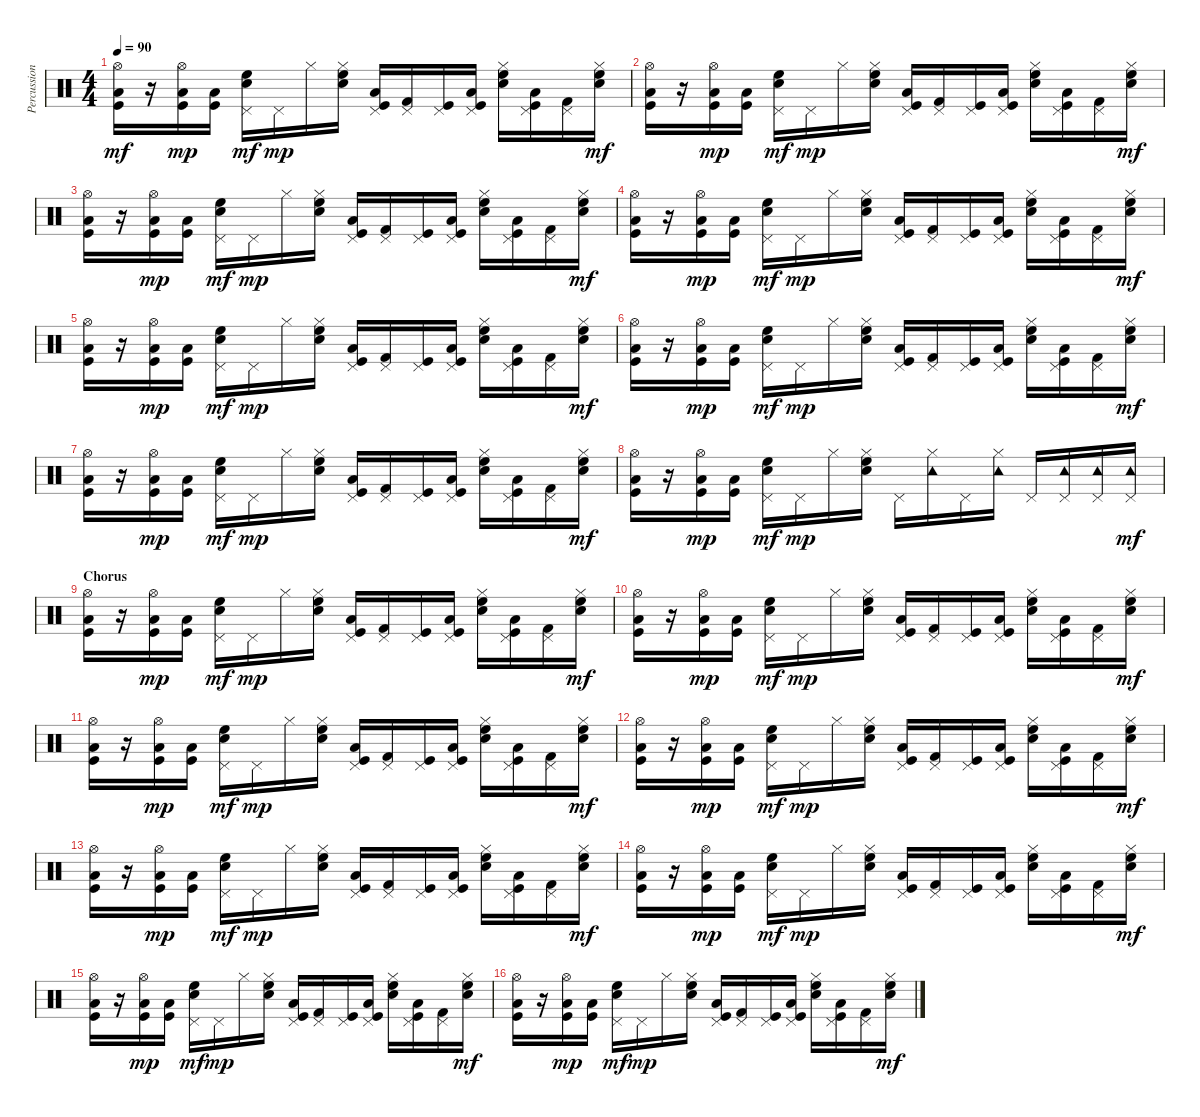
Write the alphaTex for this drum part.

\track ("Percussion" "Percussion") {instrument percussion}
\staff {score}
\articulation defaults
\ts (4 4)
\tempo 90
\clef neutral
\ks c
("Kick (hit)" "Low Tom (hit)" "Hi-Hat (open)").16{dy mf} r.16 ("Kick (hit)" "Low Tom (hit)" "Hi-Hat (open)").16{dy mp} ("Kick (hit)" "Low Tom (hit)").16 ("Snare (hit) 2" "High Floor Tom (hit)" "Pedal Hi-Hat (hit)").16{dy mf} "Pedal Hi-Hat (hit)".16{dy mp} "Hi-Hat (closed)".16 ("Snare (hit) 2" "High Floor Tom (hit)" "Hi-Hat (closed)").16 ("Kick (hit)" "Low Tom (hit)" "Pedal Hi-Hat (hit)").16 ("Kick (hit) 2" "Pedal Hi-Hat (hit)").16 ("Kick (hit)" "Pedal Hi-Hat (hit)").16 ("Kick (hit)" "Low Tom (hit)" "Pedal Hi-Hat (hit)").16 ("Snare (hit) 2" "High Floor Tom (hit)" "Hi-Hat (closed)").16 ("Kick (hit)" "Low Tom (hit)" "Pedal Hi-Hat (hit)").16 ("Kick (hit) 2" "Pedal Hi-Hat (hit)").16 ("Snare (hit) 2" "High Floor Tom (hit)" "Hi-Hat (closed)").16{dy mf} |
("Kick (hit)" "Low Tom (hit)" "Hi-Hat (open)").16 r.16 ("Kick (hit)" "Low Tom (hit)" "Hi-Hat (open)").16{dy mp} ("Kick (hit)" "Low Tom (hit)").16 ("Snare (hit) 2" "High Floor Tom (hit)" "Pedal Hi-Hat (hit)").16{dy mf} "Pedal Hi-Hat (hit)".16{dy mp} "Hi-Hat (closed)".16 ("Snare (hit) 2" "High Floor Tom (hit)" "Hi-Hat (closed)").16 ("Kick (hit)" "Low Tom (hit)" "Pedal Hi-Hat (hit)").16 ("Kick (hit) 2" "Pedal Hi-Hat (hit)").16 ("Kick (hit)" "Pedal Hi-Hat (hit)").16 ("Kick (hit)" "Low Tom (hit)" "Pedal Hi-Hat (hit)").16 ("Snare (hit) 2" "High Floor Tom (hit)" "Hi-Hat (closed)").16 ("Kick (hit)" "Low Tom (hit)" "Pedal Hi-Hat (hit)").16 ("Kick (hit) 2" "Pedal Hi-Hat (hit)").16 ("Snare (hit) 2" "High Floor Tom (hit)" "Hi-Hat (closed)").16{dy mf} |
("Kick (hit)" "Low Tom (hit)" "Hi-Hat (open)").16 r.16 ("Kick (hit)" "Low Tom (hit)" "Hi-Hat (open)").16{dy mp} ("Kick (hit)" "Low Tom (hit)").16 ("Snare (hit) 2" "High Floor Tom (hit)" "Pedal Hi-Hat (hit)").16{dy mf} "Pedal Hi-Hat (hit)".16{dy mp} "Hi-Hat (closed)".16 ("Snare (hit) 2" "High Floor Tom (hit)" "Hi-Hat (closed)").16 ("Kick (hit)" "Low Tom (hit)" "Pedal Hi-Hat (hit)").16 ("Kick (hit) 2" "Pedal Hi-Hat (hit)").16 ("Kick (hit)" "Pedal Hi-Hat (hit)").16 ("Kick (hit)" "Low Tom (hit)" "Pedal Hi-Hat (hit)").16 ("Snare (hit) 2" "High Floor Tom (hit)" "Hi-Hat (closed)").16 ("Kick (hit)" "Low Tom (hit)" "Pedal Hi-Hat (hit)").16 ("Kick (hit) 2" "Pedal Hi-Hat (hit)").16 ("Snare (hit) 2" "High Floor Tom (hit)" "Hi-Hat (closed)").16{dy mf} |
("Kick (hit)" "Low Tom (hit)" "Hi-Hat (open)").16 r.16 ("Kick (hit)" "Low Tom (hit)" "Hi-Hat (open)").16{dy mp} ("Kick (hit)" "Low Tom (hit)").16 ("Snare (hit) 2" "High Floor Tom (hit)" "Pedal Hi-Hat (hit)").16{dy mf} "Pedal Hi-Hat (hit)".16{dy mp} "Hi-Hat (closed)".16 ("Snare (hit) 2" "High Floor Tom (hit)" "Hi-Hat (closed)").16 ("Kick (hit)" "Low Tom (hit)" "Pedal Hi-Hat (hit)").16 ("Kick (hit) 2" "Pedal Hi-Hat (hit)").16 ("Kick (hit)" "Pedal Hi-Hat (hit)").16 ("Kick (hit)" "Low Tom (hit)" "Pedal Hi-Hat (hit)").16 ("Snare (hit) 2" "High Floor Tom (hit)" "Hi-Hat (closed)").16 ("Kick (hit)" "Low Tom (hit)" "Pedal Hi-Hat (hit)").16 ("Kick (hit) 2" "Pedal Hi-Hat (hit)").16 ("Snare (hit) 2" "High Floor Tom (hit)" "Hi-Hat (closed)").16{dy mf} |
("Kick (hit)" "Low Tom (hit)" "Hi-Hat (open)").16 r.16 ("Kick (hit)" "Low Tom (hit)" "Hi-Hat (open)").16{dy mp} ("Kick (hit)" "Low Tom (hit)").16 ("Snare (hit) 2" "High Floor Tom (hit)" "Pedal Hi-Hat (hit)").16{dy mf} "Pedal Hi-Hat (hit)".16{dy mp} "Hi-Hat (closed)".16 ("Snare (hit) 2" "High Floor Tom (hit)" "Hi-Hat (closed)").16 ("Kick (hit)" "Low Tom (hit)" "Pedal Hi-Hat (hit)").16 ("Kick (hit) 2" "Pedal Hi-Hat (hit)").16 ("Kick (hit)" "Pedal Hi-Hat (hit)").16 ("Kick (hit)" "Low Tom (hit)" "Pedal Hi-Hat (hit)").16 ("Snare (hit) 2" "High Floor Tom (hit)" "Hi-Hat (closed)").16 ("Kick (hit)" "Low Tom (hit)" "Pedal Hi-Hat (hit)").16 ("Kick (hit) 2" "Pedal Hi-Hat (hit)").16 ("Snare (hit) 2" "High Floor Tom (hit)" "Hi-Hat (closed)").16{dy mf} |
("Kick (hit)" "Low Tom (hit)" "Hi-Hat (open)").16 r.16 ("Kick (hit)" "Low Tom (hit)" "Hi-Hat (open)").16{dy mp} ("Kick (hit)" "Low Tom (hit)").16 ("Snare (hit) 2" "High Floor Tom (hit)" "Pedal Hi-Hat (hit)").16{dy mf} "Pedal Hi-Hat (hit)".16{dy mp} "Hi-Hat (closed)".16 ("Snare (hit) 2" "High Floor Tom (hit)" "Hi-Hat (closed)").16 ("Kick (hit)" "Low Tom (hit)" "Pedal Hi-Hat (hit)").16 ("Kick (hit) 2" "Pedal Hi-Hat (hit)").16 ("Kick (hit)" "Pedal Hi-Hat (hit)").16 ("Kick (hit)" "Low Tom (hit)" "Pedal Hi-Hat (hit)").16 ("Snare (hit) 2" "High Floor Tom (hit)" "Hi-Hat (closed)").16 ("Kick (hit)" "Low Tom (hit)" "Pedal Hi-Hat (hit)").16 ("Kick (hit) 2" "Pedal Hi-Hat (hit)").16 ("Snare (hit) 2" "High Floor Tom (hit)" "Hi-Hat (closed)").16{dy mf} |
("Kick (hit)" "Low Tom (hit)" "Hi-Hat (open)").16 r.16 ("Kick (hit)" "Low Tom (hit)" "Hi-Hat (open)").16{dy mp} ("Kick (hit)" "Low Tom (hit)").16 ("Snare (hit) 2" "High Floor Tom (hit)" "Pedal Hi-Hat (hit)").16{dy mf} "Pedal Hi-Hat (hit)".16{dy mp} "Hi-Hat (closed)".16 ("Snare (hit) 2" "High Floor Tom (hit)" "Hi-Hat (closed)").16 ("Kick (hit)" "Low Tom (hit)" "Pedal Hi-Hat (hit)").16 ("Kick (hit) 2" "Pedal Hi-Hat (hit)").16 ("Kick (hit)" "Pedal Hi-Hat (hit)").16 ("Kick (hit)" "Low Tom (hit)" "Pedal Hi-Hat (hit)").16 ("Snare (hit) 2" "High Floor Tom (hit)" "Hi-Hat (closed)").16 ("Kick (hit)" "Low Tom (hit)" "Pedal Hi-Hat (hit)").16 ("Kick (hit) 2" "Pedal Hi-Hat (hit)").16 ("Snare (hit) 2" "High Floor Tom (hit)" "Hi-Hat (closed)").16{dy mf} |
("Kick (hit)" "Low Tom (hit)" "Hi-Hat (open)").16 r.16 ("Kick (hit)" "Low Tom (hit)" "Hi-Hat (open)").16{dy mp} ("Kick (hit)" "Low Tom (hit)").16 ("Snare (hit) 2" "High Floor Tom (hit)" "Pedal Hi-Hat (hit)").16{dy mf} "Pedal Hi-Hat (hit)".16{dy mp} "Hi-Hat (closed)".16 ("Snare (hit) 2" "High Floor Tom (hit)" "Hi-Hat (closed)").16 "Pedal Hi-Hat (hit)".16 ("Tambourine (hit)" "Hi-Hat (closed)").16 "Pedal Hi-Hat (hit)".16 ("Tambourine (hit)" "Hi-Hat (closed)").16 "Pedal Hi-Hat (hit)".16 ("Tambourine (hit)" "Pedal Hi-Hat (hit)").16 ("Tambourine (hit)" "Pedal Hi-Hat (hit)").16 ("Tambourine (hit)" "Pedal Hi-Hat (hit)").16{dy mf} |
\section ("" "Chorus")
("Kick (hit)" "Low Tom (hit)" "Hi-Hat (open)").16 r.16 ("Kick (hit)" "Low Tom (hit)" "Hi-Hat (open)").16{dy mp} ("Kick (hit)" "Low Tom (hit)").16 ("Snare (hit) 2" "High Floor Tom (hit)" "Pedal Hi-Hat (hit)").16{dy mf} "Pedal Hi-Hat (hit)".16{dy mp} "Hi-Hat (closed)".16 ("Snare (hit) 2" "High Floor Tom (hit)" "Hi-Hat (closed)").16 ("Kick (hit)" "Low Tom (hit)" "Pedal Hi-Hat (hit)").16 ("Kick (hit) 2" "Pedal Hi-Hat (hit)").16 ("Kick (hit)" "Pedal Hi-Hat (hit)").16 ("Kick (hit)" "Low Tom (hit)" "Pedal Hi-Hat (hit)").16 ("Snare (hit) 2" "High Floor Tom (hit)" "Hi-Hat (closed)").16 ("Kick (hit)" "Low Tom (hit)" "Pedal Hi-Hat (hit)").16 ("Kick (hit) 2" "Pedal Hi-Hat (hit)").16 ("Snare (hit) 2" "High Floor Tom (hit)" "Hi-Hat (closed)").16{dy mf} |
("Kick (hit)" "Low Tom (hit)" "Hi-Hat (open)").16 r.16 ("Kick (hit)" "Low Tom (hit)" "Hi-Hat (open)").16{dy mp} ("Kick (hit)" "Low Tom (hit)").16 ("Snare (hit) 2" "High Floor Tom (hit)" "Pedal Hi-Hat (hit)").16{dy mf} "Pedal Hi-Hat (hit)".16{dy mp} "Hi-Hat (closed)".16 ("Snare (hit) 2" "High Floor Tom (hit)" "Hi-Hat (closed)").16 ("Kick (hit)" "Low Tom (hit)" "Pedal Hi-Hat (hit)").16 ("Kick (hit) 2" "Pedal Hi-Hat (hit)").16 ("Kick (hit)" "Pedal Hi-Hat (hit)").16 ("Kick (hit)" "Low Tom (hit)" "Pedal Hi-Hat (hit)").16 ("Snare (hit) 2" "High Floor Tom (hit)" "Hi-Hat (closed)").16 ("Kick (hit)" "Low Tom (hit)" "Pedal Hi-Hat (hit)").16 ("Kick (hit) 2" "Pedal Hi-Hat (hit)").16 ("Snare (hit) 2" "High Floor Tom (hit)" "Hi-Hat (closed)").16{dy mf} |
("Kick (hit)" "Low Tom (hit)" "Hi-Hat (open)").16 r.16 ("Kick (hit)" "Low Tom (hit)" "Hi-Hat (open)").16{dy mp} ("Kick (hit)" "Low Tom (hit)").16 ("Snare (hit) 2" "High Floor Tom (hit)" "Pedal Hi-Hat (hit)").16{dy mf} "Pedal Hi-Hat (hit)".16{dy mp} "Hi-Hat (closed)".16 ("Snare (hit) 2" "High Floor Tom (hit)" "Hi-Hat (closed)").16 ("Kick (hit)" "Low Tom (hit)" "Pedal Hi-Hat (hit)").16 ("Kick (hit) 2" "Pedal Hi-Hat (hit)").16 ("Kick (hit)" "Pedal Hi-Hat (hit)").16 ("Kick (hit)" "Low Tom (hit)" "Pedal Hi-Hat (hit)").16 ("Snare (hit) 2" "High Floor Tom (hit)" "Hi-Hat (closed)").16 ("Kick (hit)" "Low Tom (hit)" "Pedal Hi-Hat (hit)").16 ("Kick (hit) 2" "Pedal Hi-Hat (hit)").16 ("Snare (hit) 2" "High Floor Tom (hit)" "Hi-Hat (closed)").16{dy mf} |
("Kick (hit)" "Low Tom (hit)" "Hi-Hat (open)").16 r.16 ("Kick (hit)" "Low Tom (hit)" "Hi-Hat (open)").16{dy mp} ("Kick (hit)" "Low Tom (hit)").16 ("Snare (hit) 2" "High Floor Tom (hit)" "Pedal Hi-Hat (hit)").16{dy mf} "Pedal Hi-Hat (hit)".16{dy mp} "Hi-Hat (closed)".16 ("Snare (hit) 2" "High Floor Tom (hit)" "Hi-Hat (closed)").16 ("Kick (hit)" "Low Tom (hit)" "Pedal Hi-Hat (hit)").16 ("Kick (hit) 2" "Pedal Hi-Hat (hit)").16 ("Kick (hit)" "Pedal Hi-Hat (hit)").16 ("Kick (hit)" "Low Tom (hit)" "Pedal Hi-Hat (hit)").16 ("Snare (hit) 2" "High Floor Tom (hit)" "Hi-Hat (closed)").16 ("Kick (hit)" "Low Tom (hit)" "Pedal Hi-Hat (hit)").16 ("Kick (hit) 2" "Pedal Hi-Hat (hit)").16 ("Snare (hit) 2" "High Floor Tom (hit)" "Hi-Hat (closed)").16{dy mf} |
("Kick (hit)" "Low Tom (hit)" "Hi-Hat (open)").16 r.16 ("Kick (hit)" "Low Tom (hit)" "Hi-Hat (open)").16{dy mp} ("Kick (hit)" "Low Tom (hit)").16 ("Snare (hit) 2" "High Floor Tom (hit)" "Pedal Hi-Hat (hit)").16{dy mf} "Pedal Hi-Hat (hit)".16{dy mp} "Hi-Hat (closed)".16 ("Snare (hit) 2" "High Floor Tom (hit)" "Hi-Hat (closed)").16 ("Kick (hit)" "Low Tom (hit)" "Pedal Hi-Hat (hit)").16 ("Kick (hit) 2" "Pedal Hi-Hat (hit)").16 ("Kick (hit)" "Pedal Hi-Hat (hit)").16 ("Kick (hit)" "Low Tom (hit)" "Pedal Hi-Hat (hit)").16 ("Snare (hit) 2" "High Floor Tom (hit)" "Hi-Hat (closed)").16 ("Kick (hit)" "Low Tom (hit)" "Pedal Hi-Hat (hit)").16 ("Kick (hit) 2" "Pedal Hi-Hat (hit)").16 ("Snare (hit) 2" "High Floor Tom (hit)" "Hi-Hat (closed)").16{dy mf} |
("Kick (hit)" "Low Tom (hit)" "Hi-Hat (open)").16 r.16 ("Kick (hit)" "Low Tom (hit)" "Hi-Hat (open)").16{dy mp} ("Kick (hit)" "Low Tom (hit)").16 ("Snare (hit) 2" "High Floor Tom (hit)" "Pedal Hi-Hat (hit)").16{dy mf} "Pedal Hi-Hat (hit)".16{dy mp} "Hi-Hat (closed)".16 ("Snare (hit) 2" "High Floor Tom (hit)" "Hi-Hat (closed)").16 ("Kick (hit)" "Low Tom (hit)" "Pedal Hi-Hat (hit)").16 ("Kick (hit) 2" "Pedal Hi-Hat (hit)").16 ("Kick (hit)" "Pedal Hi-Hat (hit)").16 ("Kick (hit)" "Low Tom (hit)" "Pedal Hi-Hat (hit)").16 ("Snare (hit) 2" "High Floor Tom (hit)" "Hi-Hat (closed)").16 ("Kick (hit)" "Low Tom (hit)" "Pedal Hi-Hat (hit)").16 ("Kick (hit) 2" "Pedal Hi-Hat (hit)").16 ("Snare (hit) 2" "High Floor Tom (hit)" "Hi-Hat (closed)").16{dy mf} |
("Kick (hit)" "Low Tom (hit)" "Hi-Hat (open)").16 r.16 ("Kick (hit)" "Low Tom (hit)" "Hi-Hat (open)").16{dy mp} ("Kick (hit)" "Low Tom (hit)").16 ("Snare (hit) 2" "High Floor Tom (hit)" "Pedal Hi-Hat (hit)").16{dy mf} "Pedal Hi-Hat (hit)".16{dy mp} "Hi-Hat (closed)".16 ("Snare (hit) 2" "High Floor Tom (hit)" "Hi-Hat (closed)").16 ("Kick (hit)" "Low Tom (hit)" "Pedal Hi-Hat (hit)").16 ("Kick (hit) 2" "Pedal Hi-Hat (hit)").16 ("Kick (hit)" "Pedal Hi-Hat (hit)").16 ("Kick (hit)" "Low Tom (hit)" "Pedal Hi-Hat (hit)").16 ("Snare (hit) 2" "High Floor Tom (hit)" "Hi-Hat (closed)").16 ("Kick (hit)" "Low Tom (hit)" "Pedal Hi-Hat (hit)").16 ("Kick (hit) 2" "Pedal Hi-Hat (hit)").16 ("Snare (hit) 2" "High Floor Tom (hit)" "Hi-Hat (closed)").16{dy mf} |
("Kick (hit)" "Low Tom (hit)" "Hi-Hat (open)").16 r.16 ("Kick (hit)" "Low Tom (hit)" "Hi-Hat (open)").16{dy mp} ("Kick (hit)" "Low Tom (hit)").16 ("Snare (hit) 2" "High Floor Tom (hit)" "Pedal Hi-Hat (hit)").16{dy mf} "Pedal Hi-Hat (hit)".16{dy mp} "Hi-Hat (closed)".16 ("Snare (hit) 2" "High Floor Tom (hit)" "Hi-Hat (closed)").16 ("Kick (hit)" "Low Tom (hit)" "Pedal Hi-Hat (hit)").16 ("Kick (hit) 2" "Pedal Hi-Hat (hit)").16 ("Kick (hit)" "Pedal Hi-Hat (hit)").16 ("Kick (hit)" "Low Tom (hit)" "Pedal Hi-Hat (hit)").16 ("Snare (hit) 2" "High Floor Tom (hit)" "Hi-Hat (closed)").16 ("Kick (hit)" "Low Tom (hit)" "Pedal Hi-Hat (hit)").16 ("Kick (hit) 2" "Pedal Hi-Hat (hit)").16 ("Snare (hit) 2" "High Floor Tom (hit)" "Hi-Hat (closed)").16{dy mf}
